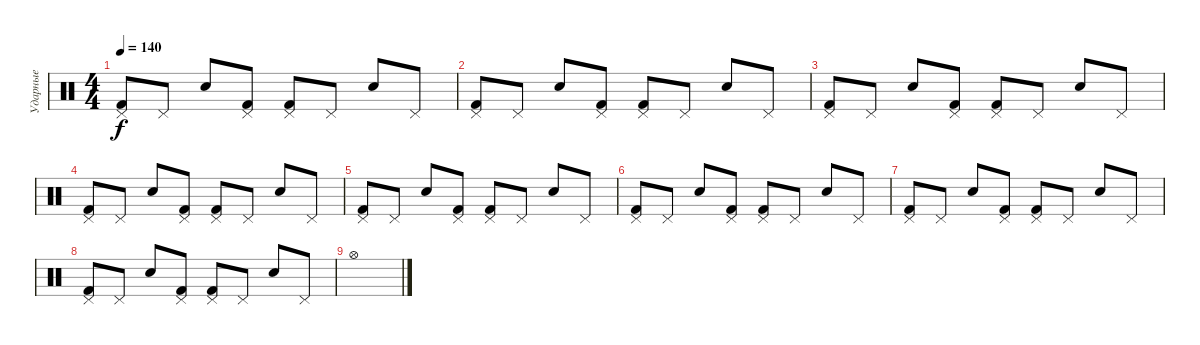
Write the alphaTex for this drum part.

\track ("Ударные" "Ударные") {instrument percussion}
\staff {score}
\articulation defaults
\ts (4 4)
\tempo 140
\clef neutral
\ks c
("Kick (hit) 2" "Pedal Hi-Hat (hit)").8{dy f} "Pedal Hi-Hat (hit)".8 "Electric Snare (hit)".8 ("Kick (hit) 2" "Pedal Hi-Hat (hit)").8 ("Kick (hit) 2" "Pedal Hi-Hat (hit)").8 "Pedal Hi-Hat (hit)".8 "Electric Snare (hit)".8 "Pedal Hi-Hat (hit)".8 |
("Kick (hit) 2" "Pedal Hi-Hat (hit)").8 "Pedal Hi-Hat (hit)".8 "Electric Snare (hit)".8 ("Kick (hit) 2" "Pedal Hi-Hat (hit)").8 ("Kick (hit) 2" "Pedal Hi-Hat (hit)").8 "Pedal Hi-Hat (hit)".8 "Electric Snare (hit)".8 "Pedal Hi-Hat (hit)".8 |
("Kick (hit) 2" "Pedal Hi-Hat (hit)").8 "Pedal Hi-Hat (hit)".8 "Electric Snare (hit)".8 ("Kick (hit) 2" "Pedal Hi-Hat (hit)").8 ("Kick (hit) 2" "Pedal Hi-Hat (hit)").8 "Pedal Hi-Hat (hit)".8 "Electric Snare (hit)".8 "Pedal Hi-Hat (hit)".8 |
("Kick (hit) 2" "Pedal Hi-Hat (hit)").8 "Pedal Hi-Hat (hit)".8 "Electric Snare (hit)".8 ("Kick (hit) 2" "Pedal Hi-Hat (hit)").8 ("Kick (hit) 2" "Pedal Hi-Hat (hit)").8 "Pedal Hi-Hat (hit)".8 "Electric Snare (hit)".8 "Pedal Hi-Hat (hit)".8 |
("Kick (hit) 2" "Pedal Hi-Hat (hit)").8 "Pedal Hi-Hat (hit)".8 "Electric Snare (hit)".8 ("Kick (hit) 2" "Pedal Hi-Hat (hit)").8 ("Kick (hit) 2" "Pedal Hi-Hat (hit)").8 "Pedal Hi-Hat (hit)".8 "Electric Snare (hit)".8 "Pedal Hi-Hat (hit)".8 |
("Kick (hit) 2" "Pedal Hi-Hat (hit)").8 "Pedal Hi-Hat (hit)".8 "Electric Snare (hit)".8 ("Kick (hit) 2" "Pedal Hi-Hat (hit)").8 ("Kick (hit) 2" "Pedal Hi-Hat (hit)").8 "Pedal Hi-Hat (hit)".8 "Electric Snare (hit)".8 "Pedal Hi-Hat (hit)".8 |
("Kick (hit) 2" "Pedal Hi-Hat (hit)").8 "Pedal Hi-Hat (hit)".8 "Electric Snare (hit)".8 ("Kick (hit) 2" "Pedal Hi-Hat (hit)").8 ("Kick (hit) 2" "Pedal Hi-Hat (hit)").8 "Pedal Hi-Hat (hit)".8 "Electric Snare (hit)".8 "Pedal Hi-Hat (hit)".8 |
("Kick (hit) 2" "Pedal Hi-Hat (hit)").8 "Pedal Hi-Hat (hit)".8 "Electric Snare (hit)".8 ("Kick (hit) 2" "Pedal Hi-Hat (hit)").8 ("Kick (hit) 2" "Pedal Hi-Hat (hit)").8 "Pedal Hi-Hat (hit)".8 "Electric Snare (hit)".8 "Pedal Hi-Hat (hit)".8 |
"Hi-Hat (open)".1
